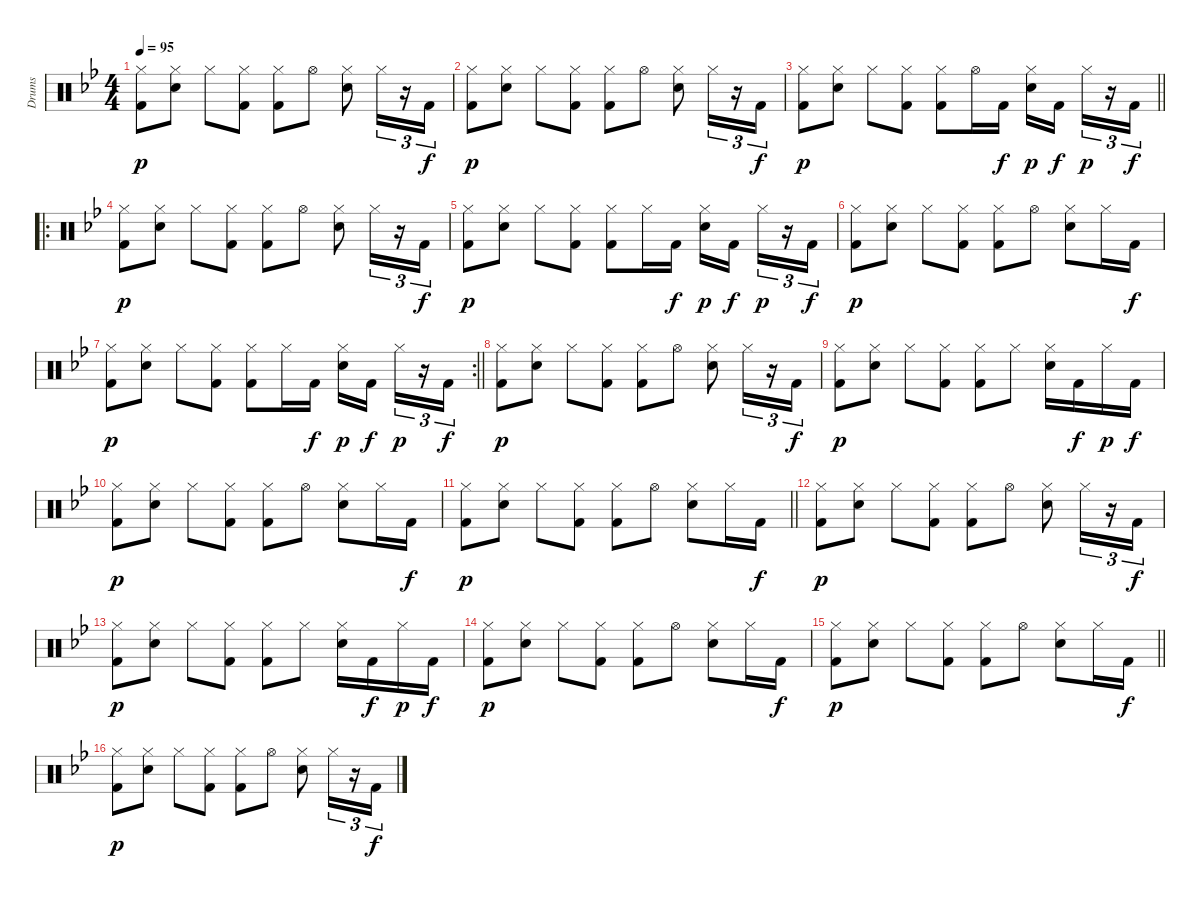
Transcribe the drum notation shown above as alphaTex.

\track ("Drums" "Drums") {instrument percussion}
\staff {score}
\articulation defaults
\ts (4 4)
\tempo 95
\clef neutral
\ks gminor
("Hi-Hat (closed)" "Kick (hit) 2").8{dy p} ("Hi-Hat (closed)" "Electric Snare (hit)").8 "Hi-Hat (closed)".8 ("Hi-Hat (closed)" "Kick (hit) 2").8 ("Hi-Hat (closed)" "Kick (hit) 2").8 "Hi-Hat (open)".8 ("Hi-Hat (closed)" "Electric Snare (hit)").8 "Hi-Hat (closed)".16{tu (3 2)} r.16{tu (3 2)} "Kick (hit) 2".16{tu (3 2) dy f} |
("Hi-Hat (closed)" "Kick (hit) 2").8{dy p} ("Hi-Hat (closed)" "Electric Snare (hit)").8 "Hi-Hat (closed)".8 ("Hi-Hat (closed)" "Kick (hit) 2").8 ("Hi-Hat (closed)" "Kick (hit) 2").8 "Hi-Hat (open)".8 ("Hi-Hat (closed)" "Electric Snare (hit)").8 "Hi-Hat (closed)".16{tu (3 2)} r.16{tu (3 2)} "Kick (hit) 2".16{tu (3 2) dy f} |
\barLineRight lightlight
("Hi-Hat (closed)" "Kick (hit) 2").8{dy p} ("Hi-Hat (closed)" "Electric Snare (hit)").8 "Hi-Hat (closed)".8 ("Hi-Hat (closed)" "Kick (hit) 2").8 ("Hi-Hat (closed)" "Kick (hit) 2").8 "Hi-Hat (open)".16 "Kick (hit) 2".16{dy f} ("Hi-Hat (closed)" "Electric Snare (hit)").16{dy p} "Kick (hit) 2".16{dy f beam splitsecondary} "Hi-Hat (closed)".16{tu (3 2) dy p} r.16{tu (3 2)} "Kick (hit) 2".16{tu (3 2) dy f} |
\ro
("Hi-Hat (closed)" "Kick (hit) 2").8{dy p} ("Hi-Hat (closed)" "Electric Snare (hit)").8 "Hi-Hat (closed)".8 ("Hi-Hat (closed)" "Kick (hit) 2").8 ("Hi-Hat (closed)" "Kick (hit) 2").8 "Hi-Hat (open)".8 ("Hi-Hat (closed)" "Electric Snare (hit)").8 "Hi-Hat (closed)".16{tu (3 2)} r.16{tu (3 2)} "Kick (hit) 2".16{tu (3 2) dy f} |
("Hi-Hat (closed)" "Kick (hit) 2").8{dy p} ("Hi-Hat (closed)" "Electric Snare (hit)").8 "Hi-Hat (closed)".8 ("Hi-Hat (closed)" "Kick (hit) 2").8 ("Hi-Hat (closed)" "Kick (hit) 2").8 "Hi-Hat (closed)".16 "Kick (hit) 2".16{dy f} ("Hi-Hat (closed)" "Electric Snare (hit)").16{dy p} "Kick (hit) 2".16{dy f beam splitsecondary} "Hi-Hat (closed)".16{tu (3 2) dy p} r.16{tu (3 2)} "Kick (hit) 2".16{tu (3 2) dy f} |
("Hi-Hat (closed)" "Kick (hit) 2").8{dy p} ("Hi-Hat (closed)" "Electric Snare (hit)").8 "Hi-Hat (closed)".8 ("Hi-Hat (closed)" "Kick (hit) 2").8 ("Hi-Hat (closed)" "Kick (hit) 2").8 "Hi-Hat (open)".8 ("Hi-Hat (closed)" "Electric Snare (hit)").8 "Hi-Hat (closed)".16 "Kick (hit) 2".16{dy f} |
\rc 2
\barLineRight lightlight
("Hi-Hat (closed)" "Kick (hit) 2").8{dy p} ("Hi-Hat (closed)" "Electric Snare (hit)").8 "Hi-Hat (closed)".8 ("Hi-Hat (closed)" "Kick (hit) 2").8 ("Hi-Hat (closed)" "Kick (hit) 2").8 "Hi-Hat (closed)".16 "Kick (hit) 2".16{dy f} ("Hi-Hat (closed)" "Electric Snare (hit)").16{dy p} "Kick (hit) 2".16{dy f beam splitsecondary} "Hi-Hat (closed)".16{tu (3 2) dy p} r.16{tu (3 2)} "Kick (hit) 2".16{tu (3 2) dy f} |
("Hi-Hat (closed)" "Kick (hit) 2").8{dy p} ("Hi-Hat (closed)" "Electric Snare (hit)").8 "Hi-Hat (closed)".8 ("Hi-Hat (closed)" "Kick (hit) 2").8 ("Hi-Hat (closed)" "Kick (hit) 2").8 "Hi-Hat (open)".8 ("Hi-Hat (closed)" "Electric Snare (hit)").8 "Hi-Hat (closed)".16{tu (3 2)} r.16{tu (3 2)} "Kick (hit) 2".16{tu (3 2) dy f} |
("Hi-Hat (closed)" "Kick (hit) 2").8{dy p} ("Hi-Hat (closed)" "Electric Snare (hit)").8 "Hi-Hat (closed)".8 ("Hi-Hat (closed)" "Kick (hit) 2").8 ("Hi-Hat (closed)" "Kick (hit) 2").8 "Hi-Hat (closed)".8 ("Hi-Hat (closed)" "Electric Snare (hit)").16 "Kick (hit) 2".16{dy f} "Hi-Hat (closed)".16{dy p} "Kick (hit) 2".16{dy f} |
("Hi-Hat (closed)" "Kick (hit) 2").8{dy p} ("Hi-Hat (closed)" "Electric Snare (hit)").8 "Hi-Hat (closed)".8 ("Hi-Hat (closed)" "Kick (hit) 2").8 ("Hi-Hat (closed)" "Kick (hit) 2").8 "Hi-Hat (open)".8 ("Hi-Hat (closed)" "Electric Snare (hit)").8 "Hi-Hat (closed)".16 "Kick (hit) 2".16{dy f} |
\barLineRight lightlight
("Hi-Hat (closed)" "Kick (hit) 2").8{dy p} ("Hi-Hat (closed)" "Electric Snare (hit)").8 "Hi-Hat (closed)".8 ("Hi-Hat (closed)" "Kick (hit) 2").8 ("Hi-Hat (closed)" "Kick (hit) 2").8 "Hi-Hat (open)".8 ("Hi-Hat (closed)" "Electric Snare (hit)").8 "Hi-Hat (closed)".16 "Kick (hit) 2".16{dy f} |
("Hi-Hat (closed)" "Kick (hit) 2").8{dy p} ("Hi-Hat (closed)" "Electric Snare (hit)").8 "Hi-Hat (closed)".8 ("Hi-Hat (closed)" "Kick (hit) 2").8 ("Hi-Hat (closed)" "Kick (hit) 2").8 "Hi-Hat (open)".8 ("Hi-Hat (closed)" "Electric Snare (hit)").8 "Hi-Hat (closed)".16{tu (3 2)} r.16{tu (3 2)} "Kick (hit) 2".16{tu (3 2) dy f} |
("Hi-Hat (closed)" "Kick (hit) 2").8{dy p} ("Hi-Hat (closed)" "Electric Snare (hit)").8 "Hi-Hat (closed)".8 ("Hi-Hat (closed)" "Kick (hit) 2").8 ("Hi-Hat (closed)" "Kick (hit) 2").8 "Hi-Hat (closed)".8 ("Hi-Hat (closed)" "Electric Snare (hit)").16 "Kick (hit) 2".16{dy f} "Hi-Hat (closed)".16{dy p} "Kick (hit) 2".16{dy f} |
("Hi-Hat (closed)" "Kick (hit) 2").8{dy p} ("Hi-Hat (closed)" "Electric Snare (hit)").8 "Hi-Hat (closed)".8 ("Hi-Hat (closed)" "Kick (hit) 2").8 ("Hi-Hat (closed)" "Kick (hit) 2").8 "Hi-Hat (open)".8 ("Hi-Hat (closed)" "Electric Snare (hit)").8 "Hi-Hat (closed)".16 "Kick (hit) 2".16{dy f} |
\barLineRight lightlight
("Hi-Hat (closed)" "Kick (hit) 2").8{dy p} ("Hi-Hat (closed)" "Electric Snare (hit)").8 "Hi-Hat (closed)".8 ("Hi-Hat (closed)" "Kick (hit) 2").8 ("Hi-Hat (closed)" "Kick (hit) 2").8 "Hi-Hat (open)".8 ("Hi-Hat (closed)" "Electric Snare (hit)").8 "Hi-Hat (closed)".16 "Kick (hit) 2".16{dy f} |
("Hi-Hat (closed)" "Kick (hit) 2").8{dy p} ("Hi-Hat (closed)" "Electric Snare (hit)").8 "Hi-Hat (closed)".8 ("Hi-Hat (closed)" "Kick (hit) 2").8 ("Hi-Hat (closed)" "Kick (hit) 2").8 "Hi-Hat (open)".8 ("Hi-Hat (closed)" "Electric Snare (hit)").8 "Hi-Hat (closed)".16{tu (3 2)} r.16{tu (3 2)} "Kick (hit) 2".16{tu (3 2) dy f}
